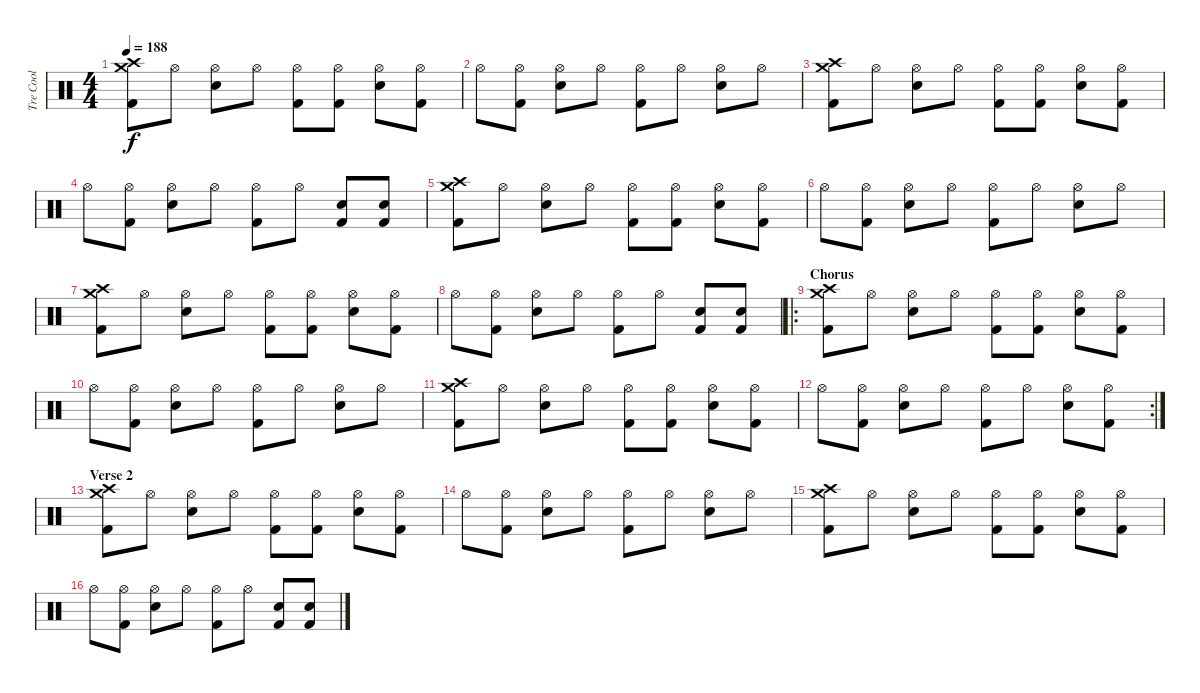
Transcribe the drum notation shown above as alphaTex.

\track ("Tre Cool" "Tre Cool") {instrument percussion}
\staff {score}
\articulation defaults
\ts (4 4)
\tempo 188
\clef neutral
\ks c
("Crash high (hit)" "Crash medium (hit)" "Kick (hit) 2").8{dy f} "Hi-Hat (open)".8 ("Hi-Hat (open)" "Electric Snare (hit)").8 "Hi-Hat (open)".8 ("Hi-Hat (open)" "Kick (hit) 2").8 ("Hi-Hat (open)" "Kick (hit) 2").8 ("Hi-Hat (open)" "Electric Snare (hit)").8 ("Hi-Hat (open)" "Kick (hit) 2").8 |
"Hi-Hat (open)".8 ("Hi-Hat (open)" "Kick (hit) 2").8 ("Hi-Hat (open)" "Electric Snare (hit)").8 "Hi-Hat (open)".8 ("Hi-Hat (open)" "Kick (hit) 2").8 "Hi-Hat (open)".8 ("Hi-Hat (open)" "Electric Snare (hit)").8 "Hi-Hat (open)".8 |
("Crash high (hit)" "Crash medium (hit)" "Kick (hit) 2").8 "Hi-Hat (open)".8 ("Hi-Hat (open)" "Electric Snare (hit)").8 "Hi-Hat (open)".8 ("Hi-Hat (open)" "Kick (hit) 2").8 ("Hi-Hat (open)" "Kick (hit) 2").8 ("Hi-Hat (open)" "Electric Snare (hit)").8 ("Hi-Hat (open)" "Kick (hit) 2").8 |
"Hi-Hat (open)".8 ("Hi-Hat (open)" "Kick (hit) 2").8 ("Hi-Hat (open)" "Electric Snare (hit)").8 "Hi-Hat (open)".8 ("Hi-Hat (open)" "Kick (hit) 2").8 "Hi-Hat (open)".8 ("Electric Snare (hit)" "Kick (hit) 2").8 ("Electric Snare (hit)" "Kick (hit) 2").8 |
("Crash high (hit)" "Crash medium (hit)" "Kick (hit) 2").8 "Hi-Hat (open)".8 ("Hi-Hat (open)" "Electric Snare (hit)").8 "Hi-Hat (open)".8 ("Hi-Hat (open)" "Kick (hit) 2").8 ("Hi-Hat (open)" "Kick (hit) 2").8 ("Hi-Hat (open)" "Electric Snare (hit)").8 ("Hi-Hat (open)" "Kick (hit) 2").8 |
"Hi-Hat (open)".8 ("Hi-Hat (open)" "Kick (hit) 2").8 ("Hi-Hat (open)" "Electric Snare (hit)").8 "Hi-Hat (open)".8 ("Hi-Hat (open)" "Kick (hit) 2").8 "Hi-Hat (open)".8 ("Hi-Hat (open)" "Electric Snare (hit)").8 "Hi-Hat (open)".8 |
("Crash high (hit)" "Crash medium (hit)" "Kick (hit) 2").8 "Hi-Hat (open)".8 ("Hi-Hat (open)" "Electric Snare (hit)").8 "Hi-Hat (open)".8 ("Hi-Hat (open)" "Kick (hit) 2").8 ("Hi-Hat (open)" "Kick (hit) 2").8 ("Hi-Hat (open)" "Electric Snare (hit)").8 ("Hi-Hat (open)" "Kick (hit) 2").8 |
"Hi-Hat (open)".8 ("Hi-Hat (open)" "Kick (hit) 2").8 ("Hi-Hat (open)" "Electric Snare (hit)").8 "Hi-Hat (open)".8 ("Hi-Hat (open)" "Kick (hit) 2").8 "Hi-Hat (open)".8 ("Electric Snare (hit)" "Kick (hit) 2").8 ("Electric Snare (hit)" "Kick (hit) 2").8 |
\ro
\section ("" "Chorus")
("Crash high (hit)" "Crash medium (hit)" "Kick (hit) 2").8 "Hi-Hat (open)".8 ("Hi-Hat (open)" "Electric Snare (hit)").8 "Hi-Hat (open)".8 ("Hi-Hat (open)" "Kick (hit) 2").8 ("Hi-Hat (open)" "Kick (hit) 2").8 ("Hi-Hat (open)" "Electric Snare (hit)").8 ("Hi-Hat (open)" "Kick (hit) 2").8 |
"Hi-Hat (open)".8 ("Hi-Hat (open)" "Kick (hit) 2").8 ("Hi-Hat (open)" "Electric Snare (hit)").8 "Hi-Hat (open)".8 ("Hi-Hat (open)" "Kick (hit) 2").8 "Hi-Hat (open)".8 ("Hi-Hat (open)" "Electric Snare (hit)").8 "Hi-Hat (open)".8 |
("Crash high (hit)" "Crash medium (hit)" "Kick (hit) 2").8 "Hi-Hat (open)".8 ("Hi-Hat (open)" "Electric Snare (hit)").8 "Hi-Hat (open)".8 ("Hi-Hat (open)" "Kick (hit) 2").8 ("Hi-Hat (open)" "Kick (hit) 2").8 ("Hi-Hat (open)" "Electric Snare (hit)").8 ("Hi-Hat (open)" "Kick (hit) 2").8 |
\rc 2 "Hi-Hat (open)".8
("Hi-Hat (open)" "Kick (hit) 2").8 ("Hi-Hat (open)" "Electric Snare (hit)").8 "Hi-Hat (open)".8 ("Hi-Hat (open)" "Kick (hit) 2").8 "Hi-Hat (open)".8 ("Hi-Hat (open)" "Electric Snare (hit)").8 ("Hi-Hat (open)" "Kick (hit) 2").8 |
\section ("" "Verse 2")
("Crash high (hit)" "Crash medium (hit)" "Kick (hit) 2").8 "Hi-Hat (open)".8 ("Hi-Hat (open)" "Electric Snare (hit)").8 "Hi-Hat (open)".8 ("Hi-Hat (open)" "Kick (hit) 2").8 ("Hi-Hat (open)" "Kick (hit) 2").8 ("Hi-Hat (open)" "Electric Snare (hit)").8 ("Hi-Hat (open)" "Kick (hit) 2").8 |
"Hi-Hat (open)".8 ("Hi-Hat (open)" "Kick (hit) 2").8 ("Hi-Hat (open)" "Electric Snare (hit)").8 "Hi-Hat (open)".8 ("Hi-Hat (open)" "Kick (hit) 2").8 "Hi-Hat (open)".8 ("Hi-Hat (open)" "Electric Snare (hit)").8 "Hi-Hat (open)".8 |
("Crash high (hit)" "Crash medium (hit)" "Kick (hit) 2").8 "Hi-Hat (open)".8 ("Hi-Hat (open)" "Electric Snare (hit)").8 "Hi-Hat (open)".8 ("Hi-Hat (open)" "Kick (hit) 2").8 ("Hi-Hat (open)" "Kick (hit) 2").8 ("Hi-Hat (open)" "Electric Snare (hit)").8 ("Hi-Hat (open)" "Kick (hit) 2").8 |
"Hi-Hat (open)".8 ("Hi-Hat (open)" "Kick (hit) 2").8 ("Hi-Hat (open)" "Electric Snare (hit)").8 "Hi-Hat (open)".8 ("Hi-Hat (open)" "Kick (hit) 2").8 "Hi-Hat (open)".8 ("Electric Snare (hit)" "Kick (hit) 2").8 ("Electric Snare (hit)" "Kick (hit) 2").8
